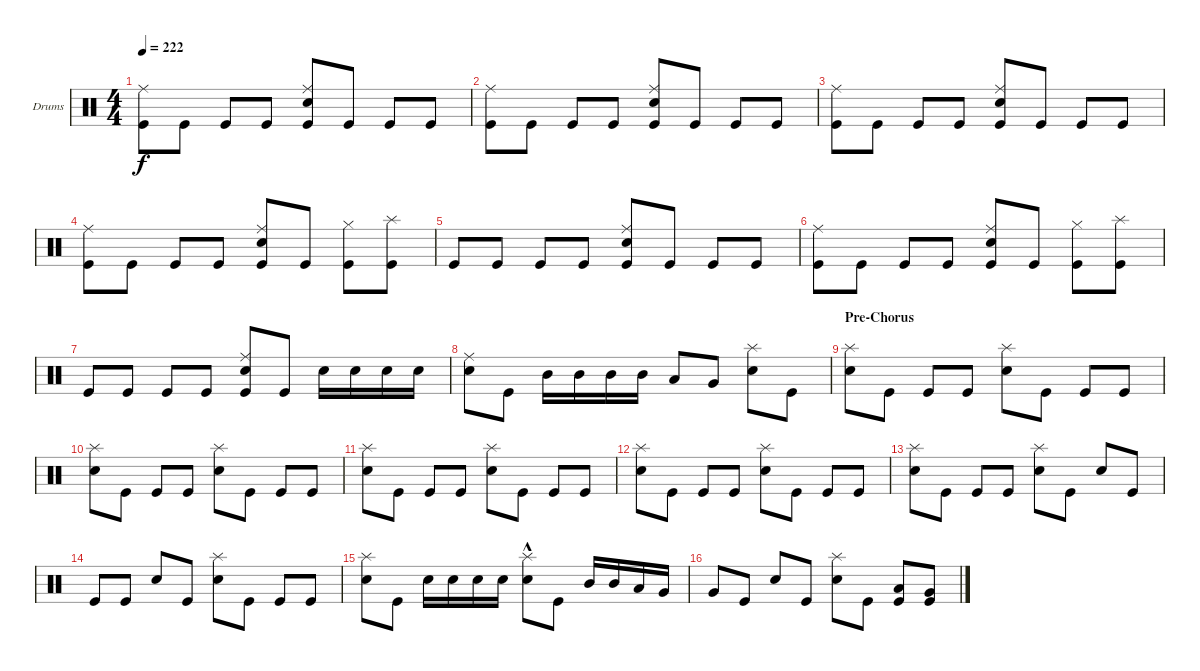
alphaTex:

\defaultSystemsLayout 4
\bracketExtendMode groupsimilarinstruments
\firstSystemTrackNameOrientation horizontal
\otherSystemsTrackNameOrientation horizontal
\track ("Drumkit" "Drums") {mute instrument percussion}
\staff {score}
\articulation defaults
\ts (4 4)
\tempo 222
\clef neutral
\ks c
("Kick (hit)" "Ride (middle)").8{dy f} "Kick (hit)".8 "Kick (hit)".8 "Kick (hit)".8 ("Kick (hit)" "Snare (hit) 2" "Ride (middle)").8 "Kick (hit)".8 "Kick (hit)".8 "Kick (hit)".8 |
("Kick (hit)" "Ride (middle)").8 "Kick (hit)".8 "Kick (hit)".8 "Kick (hit)".8 ("Kick (hit)" "Snare (hit) 2" "Ride (middle)").8 "Kick (hit)".8 "Kick (hit)".8 "Kick (hit)".8 |
("Kick (hit)" "Ride (middle)").8 "Kick (hit)".8 "Kick (hit)".8 "Kick (hit)".8 ("Kick (hit)" "Snare (hit) 2" "Ride (middle)").8 "Kick (hit)".8 "Kick (hit)".8 "Kick (hit)".8 |
("Kick (hit)" "Ride (middle)").8 "Kick (hit)".8 "Kick (hit)".8 "Kick (hit)".8 ("Kick (hit)" "Snare (hit) 2" "Ride (middle)").8 "Kick (hit)".8 ("Kick (hit)" "Hi-Hat (closed)").8 ("Kick (hit)" "Splash (hit)").8 |
"Kick (hit)".8 "Kick (hit)".8 "Kick (hit)".8 "Kick (hit)".8 ("Kick (hit)" "Snare (hit) 2" "Ride (middle)").8 "Kick (hit)".8 "Kick (hit)".8 "Kick (hit)".8 |
("Kick (hit)" "Ride (middle)").8 "Kick (hit)".8 "Kick (hit)".8 "Kick (hit)".8 ("Kick (hit)" "Snare (hit) 2" "Ride (middle)").8 "Kick (hit)".8 ("Kick (hit)" "Hi-Hat (closed)").8 ("Kick (hit)" "Splash (hit)").8 |
"Kick (hit)".8 "Kick (hit)".8 "Kick (hit)".8 "Kick (hit)".8 ("Kick (hit)" "Snare (hit) 2" "Ride (middle)").8 "Kick (hit)".8 "Snare (hit) 2".16 "Snare (hit) 2".16 "Snare (hit) 2".16 "Snare (hit) 2".16 |
("Snare (hit) 2" "Ride (middle)").8 "Kick (hit)".8 "Mid Tom (hit)".16 "Mid Tom (hit)".16 "Mid Tom (hit)".16 "Mid Tom (hit)".16 "Low Tom (hit)".8 "Very Low Tom (hit)".8 ("Splash (hit)" "Snare (hit) 2").8 "Kick (hit)".8 |
\section ("" "Pre-Chorus")
("Splash (hit)" "Snare (hit) 2").8 "Kick (hit)".8 "Kick (hit)".8 "Kick (hit)".8 ("Splash (hit)" "Snare (hit) 2").8 "Kick (hit)".8 "Kick (hit)".8 "Kick (hit)".8 |
("Splash (hit)" "Snare (hit) 2").8 "Kick (hit)".8 "Kick (hit)".8 "Kick (hit)".8 ("Splash (hit)" "Snare (hit) 2").8 "Kick (hit)".8 "Kick (hit)".8 "Kick (hit)".8 |
("Splash (hit)" "Snare (hit) 2").8 "Kick (hit)".8 "Kick (hit)".8 "Kick (hit)".8 ("Splash (hit)" "Snare (hit) 2").8 "Kick (hit)".8 "Kick (hit)".8 "Kick (hit)".8 |
("Splash (hit)" "Snare (hit) 2").8 "Kick (hit)".8 "Kick (hit)".8 "Kick (hit)".8 ("Splash (hit)" "Snare (hit) 2").8 "Kick (hit)".8 "Kick (hit)".8 "Kick (hit)".8 |
("Splash (hit)" "Snare (hit) 2").8 "Kick (hit)".8 "Kick (hit)".8 "Kick (hit)".8 ("Splash (hit)" "Snare (hit) 2").8 "Kick (hit)".8 "Snare (hit) 2".8 "Kick (hit)".8 |
"Kick (hit)".8 "Kick (hit)".8 "Snare (hit) 2".8 "Kick (hit)".8 ("Splash (hit)" "Snare (hit) 2").8 "Kick (hit)".8 "Kick (hit)".8 "Kick (hit)".8 |
("Splash (hit)" "Snare (hit) 2").8 "Kick (hit)".8 "Snare (hit) 2".16 "Snare (hit) 2".16 "Snare (hit) 2".16 "Snare (hit) 2".16 ("Splash (hit)" "Snare (hit) 2"{hac}).8 "Kick (hit)".8 "Mid Tom (hit)".16 "Mid Tom (hit)".16 "Low Tom (hit)".16 "Very Low Tom (hit)".16 |
"Very Low Tom (hit)".8 "Kick (hit)".8 "Snare (hit) 2".8 "Kick (hit)".8 ("Splash (hit)" "Snare (hit) 2").8 "Kick (hit)".8 ("Kick (hit)" "Low Tom (hit)").8 ("Kick (hit)" "Very Low Tom (hit)").8
